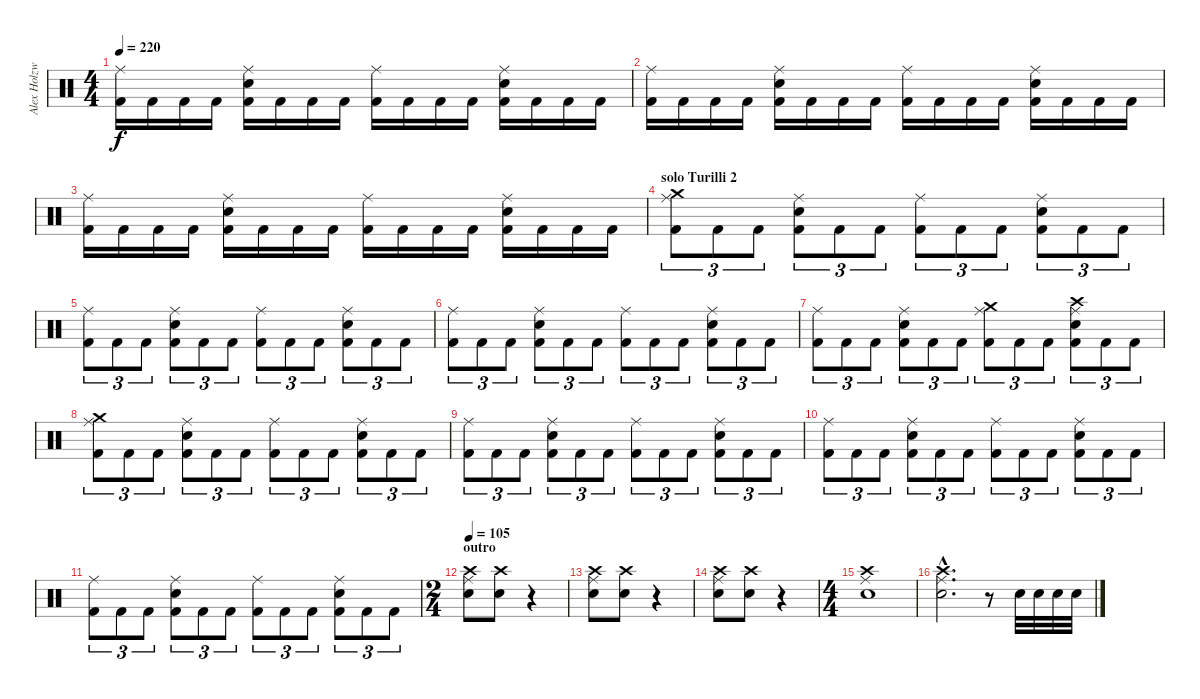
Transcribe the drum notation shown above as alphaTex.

\track ("Alex Holzwarth" "Alex Holzw") {instrument percussion}
\staff {score}
\articulation defaults
\ts (4 4)
\tempo 220
\clef neutral
\ks c
("Ride (middle)" "Kick (hit) 2").16{dy f} "Kick (hit) 2".16 "Kick (hit) 2".16 "Kick (hit) 2".16 ("Ride (middle)" "Snare (hit) 2" "Kick (hit) 2").16 "Kick (hit) 2".16 "Kick (hit) 2".16 "Kick (hit) 2".16 ("Ride (middle)" "Kick (hit) 2").16 "Kick (hit) 2".16 "Kick (hit) 2".16 "Kick (hit) 2".16 ("Ride (middle)" "Snare (hit) 2" "Kick (hit) 2").16 "Kick (hit) 2".16 "Kick (hit) 2".16 "Kick (hit) 2".16 |
("Ride (middle)" "Kick (hit) 2").16 "Kick (hit) 2".16 "Kick (hit) 2".16 "Kick (hit) 2".16 ("Ride (middle)" "Snare (hit) 2" "Kick (hit) 2").16 "Kick (hit) 2".16 "Kick (hit) 2".16 "Kick (hit) 2".16 ("Ride (middle)" "Kick (hit) 2").16 "Kick (hit) 2".16 "Kick (hit) 2".16 "Kick (hit) 2".16 ("Ride (middle)" "Snare (hit) 2" "Kick (hit) 2").16 "Kick (hit) 2".16 "Kick (hit) 2".16 "Kick (hit) 2".16 |
("Ride (middle)" "Kick (hit) 2").16 "Kick (hit) 2".16 "Kick (hit) 2".16 "Kick (hit) 2".16 ("Ride (middle)" "Snare (hit) 2" "Kick (hit) 2").16 "Kick (hit) 2".16 "Kick (hit) 2".16 "Kick (hit) 2".16 ("Ride (middle)" "Kick (hit) 2").16 "Kick (hit) 2".16 "Kick (hit) 2".16 "Kick (hit) 2".16 ("Ride (middle)" "Snare (hit) 2" "Kick (hit) 2").16 "Kick (hit) 2".16 "Kick (hit) 2".16 "Kick (hit) 2".16 |
\section ("" "solo Turilli 2")
("Ride (middle)" "Crash medium (hit)" "Kick (hit) 2").8{tu (3 2)} "Kick (hit) 2".8{tu (3 2)} "Kick (hit) 2".8{tu (3 2)} ("Ride (middle)" "Snare (hit) 2" "Kick (hit) 2").8{tu (3 2)} "Kick (hit) 2".8{tu (3 2)} "Kick (hit) 2".8{tu (3 2)} ("Ride (middle)" "Kick (hit) 2").8{tu (3 2)} "Kick (hit) 2".8{tu (3 2)} "Kick (hit) 2".8{tu (3 2)} ("Ride (middle)" "Snare (hit) 2" "Kick (hit) 2").8{tu (3 2)} "Kick (hit) 2".8{tu (3 2)} "Kick (hit) 2".8{tu (3 2)} |
("Ride (middle)" "Kick (hit) 2").8{tu (3 2)} "Kick (hit) 2".8{tu (3 2)} "Kick (hit) 2".8{tu (3 2)} ("Ride (middle)" "Snare (hit) 2" "Kick (hit) 2").8{tu (3 2)} "Kick (hit) 2".8{tu (3 2)} "Kick (hit) 2".8{tu (3 2)} ("Ride (middle)" "Kick (hit) 2").8{tu (3 2)} "Kick (hit) 2".8{tu (3 2)} "Kick (hit) 2".8{tu (3 2)} ("Ride (middle)" "Snare (hit) 2" "Kick (hit) 2").8{tu (3 2)} "Kick (hit) 2".8{tu (3 2)} "Kick (hit) 2".8{tu (3 2)} |
("Ride (middle)" "Kick (hit) 2").8{tu (3 2)} "Kick (hit) 2".8{tu (3 2)} "Kick (hit) 2".8{tu (3 2)} ("Ride (middle)" "Snare (hit) 2" "Kick (hit) 2").8{tu (3 2)} "Kick (hit) 2".8{tu (3 2)} "Kick (hit) 2".8{tu (3 2)} ("Ride (middle)" "Kick (hit) 2").8{tu (3 2)} "Kick (hit) 2".8{tu (3 2)} "Kick (hit) 2".8{tu (3 2)} ("Ride (middle)" "Snare (hit) 2" "Kick (hit) 2").8{tu (3 2)} "Kick (hit) 2".8{tu (3 2)} "Kick (hit) 2".8{tu (3 2)} |
("Ride (middle)" "Kick (hit) 2").8{tu (3 2)} "Kick (hit) 2".8{tu (3 2)} "Kick (hit) 2".8{tu (3 2)} ("Ride (middle)" "Snare (hit) 2" "Kick (hit) 2").8{tu (3 2)} "Kick (hit) 2".8{tu (3 2)} "Kick (hit) 2".8{tu (3 2)} ("Ride (middle)" "Crash medium (hit)" "Kick (hit) 2").8{tu (3 2)} "Kick (hit) 2".8{tu (3 2)} "Kick (hit) 2".8{tu (3 2)} ("Ride (middle)" "Crash high (hit)" "Snare (hit) 2" "Kick (hit) 2").8{tu (3 2)} "Kick (hit) 2".8{tu (3 2)} "Kick (hit) 2".8{tu (3 2)} |
("Ride (middle)" "Crash medium (hit)" "Kick (hit) 2").8{tu (3 2)} "Kick (hit) 2".8{tu (3 2)} "Kick (hit) 2".8{tu (3 2)} ("Ride (middle)" "Snare (hit) 2" "Kick (hit) 2").8{tu (3 2)} "Kick (hit) 2".8{tu (3 2)} "Kick (hit) 2".8{tu (3 2)} ("Ride (middle)" "Kick (hit) 2").8{tu (3 2)} "Kick (hit) 2".8{tu (3 2)} "Kick (hit) 2".8{tu (3 2)} ("Ride (middle)" "Snare (hit) 2" "Kick (hit) 2").8{tu (3 2)} "Kick (hit) 2".8{tu (3 2)} "Kick (hit) 2".8{tu (3 2)} |
("Ride (middle)" "Kick (hit) 2").8{tu (3 2)} "Kick (hit) 2".8{tu (3 2)} "Kick (hit) 2".8{tu (3 2)} ("Ride (middle)" "Snare (hit) 2" "Kick (hit) 2").8{tu (3 2)} "Kick (hit) 2".8{tu (3 2)} "Kick (hit) 2".8{tu (3 2)} ("Ride (middle)" "Kick (hit) 2").8{tu (3 2)} "Kick (hit) 2".8{tu (3 2)} "Kick (hit) 2".8{tu (3 2)} ("Ride (middle)" "Snare (hit) 2" "Kick (hit) 2").8{tu (3 2)} "Kick (hit) 2".8{tu (3 2)} "Kick (hit) 2".8{tu (3 2)} |
("Ride (middle)" "Kick (hit) 2").8{tu (3 2)} "Kick (hit) 2".8{tu (3 2)} "Kick (hit) 2".8{tu (3 2)} ("Ride (middle)" "Snare (hit) 2" "Kick (hit) 2").8{tu (3 2)} "Kick (hit) 2".8{tu (3 2)} "Kick (hit) 2".8{tu (3 2)} ("Ride (middle)" "Kick (hit) 2").8{tu (3 2)} "Kick (hit) 2".8{tu (3 2)} "Kick (hit) 2".8{tu (3 2)} ("Ride (middle)" "Snare (hit) 2" "Kick (hit) 2").8{tu (3 2)} "Kick (hit) 2".8{tu (3 2)} "Kick (hit) 2".8{tu (3 2)} |
("Ride (middle)" "Kick (hit) 2").8{tu (3 2)} "Kick (hit) 2".8{tu (3 2)} "Kick (hit) 2".8{tu (3 2)} ("Ride (middle)" "Snare (hit) 2" "Kick (hit) 2").8{tu (3 2)} "Kick (hit) 2".8{tu (3 2)} "Kick (hit) 2".8{tu (3 2)} ("Ride (middle)" "Kick (hit) 2").8{tu (3 2)} "Kick (hit) 2".8{tu (3 2)} "Kick (hit) 2".8{tu (3 2)} ("Ride (middle)" "Snare (hit) 2" "Kick (hit) 2").8{tu (3 2)} "Kick (hit) 2".8{tu (3 2)} "Kick (hit) 2".8{tu (3 2)} |
\ts (2 4)
\section ("" "outro")
\tempo 105
("Crash high (hit)" "Snare (hit) 2" "Ride (middle)").8 ("Crash high (hit)" "Snare (hit) 2").8 r.4 |
("Crash high (hit)" "Snare (hit) 2" "Ride (middle)").8 ("Crash high (hit)" "Snare (hit) 2").8 r.4 |
("Crash high (hit)" "Snare (hit) 2" "Ride (middle)").8 ("Crash high (hit)" "Snare (hit) 2").8 r.4 |
\ts (4 4)
("Crash high (hit)" "Ride (middle)" "Snare (hit) 2").1 |
("Crash high (hit)"{hac} "Ride (middle)"{hac} "Snare (hit) 2"{hac}).2{d} r.8 "Snare (hit) 2".32 "Snare (hit) 2".32 "Snare (hit) 2".32 "Snare (hit) 2".32
